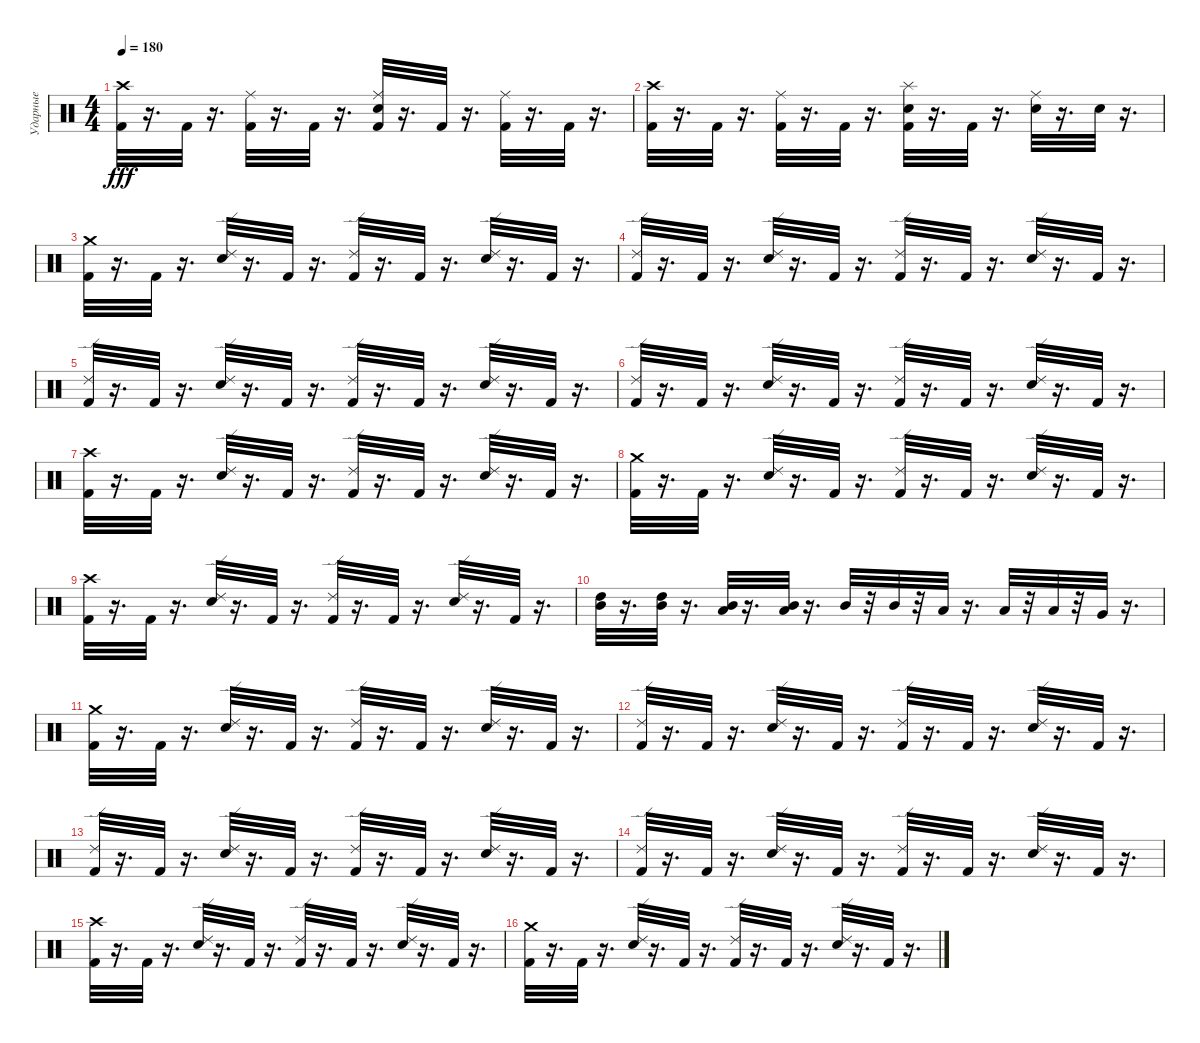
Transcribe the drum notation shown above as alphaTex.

\track ("Ударные" "Ударные") {instrument percussion}
\staff {score}
\articulation defaults
\ts (4 4)
\tempo 180
\clef neutral
\ks c
("Kick (hit) 2" "Crash high (hit)").32{dy fff} r.16{d} "Kick (hit) 2".32 r.16{d} ("Ride (middle)" "Kick (hit) 2").32 r.16{d} "Kick (hit) 2".32 r.16{d} ("Kick (hit) 2" "Snare (hit) 2" "Ride (middle)").32 r.16{d} "Kick (hit) 2".32 r.16{d} ("Ride (middle)" "Kick (hit) 2").32 r.16{d} "Kick (hit) 2".32 r.16{d} |
("Crash high (hit)" "Kick (hit) 2").32 r.16{d} "Kick (hit) 2".32 r.16{d} ("Kick (hit) 2" "Ride (middle)").32 r.16{d} "Kick (hit) 2".32 r.16{d} ("Kick (hit) 2" "Splash (hit)" "Snare (hit) 2").32 r.16{d} "Kick (hit) 2".32 r.16{d} ("Snare (hit) 2" "Ride (middle)").32 r.16{d} "Snare (hit) 2".32 r.16{d} |
("Crash medium (hit)" "Kick (hit) 2").32 r.16{d} "Kick (hit) 2".32 r.16{d} ("Ride (edge) 2" "Snare (hit) 2").32 r.16{d} "Kick (hit) 2".32 r.16{d} ("Ride (edge) 2" "Kick (hit) 2").32 r.16{d} "Kick (hit) 2".32 r.16{d} ("Ride (edge) 2" "Snare (hit) 2").32 r.16{d} "Kick (hit) 2".32 r.16{d} |
("Kick (hit) 2" "Ride (edge) 2").32 r.16{d} "Kick (hit) 2".32 r.16{d} ("Ride (edge) 2" "Snare (hit) 2").32 r.16{d} "Kick (hit) 2".32 r.16{d} ("Kick (hit) 2" "Ride (edge) 2").32 r.16{d} "Kick (hit) 2".32 r.16{d} ("Ride (edge) 2" "Snare (hit) 2").32 r.16{d} "Kick (hit) 2".32 r.16{d} |
("Ride (edge) 2" "Kick (hit) 2").32 r.16{d} "Kick (hit) 2".32 r.16{d} ("Snare (hit) 2" "Ride (edge) 2").32 r.16{d} "Kick (hit) 2".32 r.16{d} ("Kick (hit) 2" "Ride (edge) 2").32 r.16{d} "Kick (hit) 2".32 r.16{d} ("Snare (hit) 2" "Ride (edge) 2").32 r.16{d} "Kick (hit) 2".32 r.16{d} |
("Kick (hit) 2" "Ride (edge) 2").32 r.16{d} "Kick (hit) 2".32 r.16{d} ("Ride (edge) 2" "Snare (hit) 2").32 r.16{d} "Kick (hit) 2".32 r.16{d} ("Kick (hit) 2" "Ride (edge) 2").32 r.16{d} "Kick (hit) 2".32 r.16{d} ("Ride (edge) 2" "Snare (hit) 2").32 r.16{d} "Kick (hit) 2".32 r.16{d} |
("Kick (hit) 2" "Crash high (hit)").32 r.16{d} "Kick (hit) 2".32 r.16{d} ("Snare (hit) 2" "Ride (edge) 2").32 r.16{d} "Kick (hit) 2".32 r.16{d} ("Ride (edge) 2" "Kick (hit) 2").32 r.16{d} "Kick (hit) 2".32 r.16{d} ("Ride (edge) 2" "Snare (hit) 2").32 r.16{d} "Kick (hit) 2".32 r.16{d} |
("Crash medium (hit)" "Kick (hit) 2").32 r.16{d} "Kick (hit) 2".32 r.16{d} ("Ride (edge) 2" "Snare (hit) 2").32 r.16{d} "Kick (hit) 2".32 r.16{d} ("Kick (hit) 2" "Ride (edge) 2").32 r.16{d} "Kick (hit) 2".32 r.16{d} ("Snare (hit) 2" "Ride (edge) 2").32 r.16{d} "Kick (hit) 2".32 r.16{d} |
("Crash high (hit)" "Kick (hit) 2").32 r.16{d} "Kick (hit) 2".32 r.16{d} ("Ride (edge) 2" "Snare (hit) 2").32 r.16{d} "Kick (hit) 2".32 r.16{d} ("Ride (edge) 2" "Kick (hit) 2").32 r.16{d} "Kick (hit) 2".32 r.16{d} ("Snare (hit) 2" "Ride (edge) 2").32 r.16{d} "Kick (hit) 2".32 r.16{d} |
("Mid Tom (hit)" "High Tom (hit)").32 r.16{d} ("High Tom (hit)" "Mid Tom (hit)").32 r.16{d} ("Mid Tom (hit)" "Low Tom (hit)").32 r.16{d} ("Low Tom (hit)" "Mid Tom (hit)").32 r.16{d} "Mid Tom (hit)".32 r.32 "Mid Tom (hit)".32 r.32 "Low Tom (hit)".32 r.16{d} "Low Tom (hit)".32 r.32 "Low Tom (hit)".32 r.32 "Very Low Tom (hit)".32 r.16{d} |
("Kick (hit) 2" "Crash medium (hit)").32 r.16{d} "Kick (hit) 2".32 r.16{d} ("Snare (hit) 2" "Ride (edge) 2").32 r.16{d} "Kick (hit) 2".32 r.16{d} ("Ride (edge) 2" "Kick (hit) 2").32 r.16{d} "Kick (hit) 2".32 r.16{d} ("Snare (hit) 2" "Ride (edge) 2").32 r.16{d} "Kick (hit) 2".32 r.16{d} |
("Kick (hit) 2" "Ride (edge) 2").32 r.16{d} "Kick (hit) 2".32 r.16{d} ("Ride (edge) 2" "Snare (hit) 2").32 r.16{d} "Kick (hit) 2".32 r.16{d} ("Kick (hit) 2" "Ride (edge) 2").32 r.16{d} "Kick (hit) 2".32 r.16{d} ("Snare (hit) 2" "Ride (edge) 2").32 r.16{d} "Kick (hit) 2".32 r.16{d} |
("Kick (hit) 2" "Ride (edge) 2").32 r.16{d} "Kick (hit) 2".32 r.16{d} ("Ride (edge) 2" "Snare (hit) 2").32 r.16{d} "Kick (hit) 2".32 r.16{d} ("Ride (edge) 2" "Kick (hit) 2").32 r.16{d} "Kick (hit) 2".32 r.16{d} ("Ride (edge) 2" "Snare (hit) 2").32 r.16{d} "Kick (hit) 2".32 r.16{d} |
("Ride (edge) 2" "Kick (hit) 2").32 r.16{d} "Kick (hit) 2".32 r.16{d} ("Ride (edge) 2" "Snare (hit) 2").32 r.16{d} "Kick (hit) 2".32 r.16{d} ("Kick (hit) 2" "Ride (edge) 2").32 r.16{d} "Kick (hit) 2".32 r.16{d} ("Snare (hit) 2" "Ride (edge) 2").32 r.16{d} "Kick (hit) 2".32 r.16{d} |
("Kick (hit) 2" "Crash high (hit)").32 r.16{d} "Kick (hit) 2".32 r.16{d} ("Ride (edge) 2" "Snare (hit) 2").32 r.16{d} "Kick (hit) 2".32 r.16{d} ("Ride (edge) 2" "Kick (hit) 2").32 r.16{d} "Kick (hit) 2".32 r.16{d} ("Snare (hit) 2" "Ride (edge) 2").32 r.16{d} "Kick (hit) 2".32 r.16{d} |
("Crash medium (hit)" "Kick (hit) 2").32 r.16{d} "Kick (hit) 2".32 r.16{d} ("Ride (edge) 2" "Snare (hit) 2").32 r.16{d} "Kick (hit) 2".32 r.16{d} ("Kick (hit) 2" "Ride (edge) 2").32 r.16{d} "Kick (hit) 2".32 r.16{d} ("Ride (edge) 2" "Snare (hit) 2").32 r.16{d} "Kick (hit) 2".32 r.16{d}
